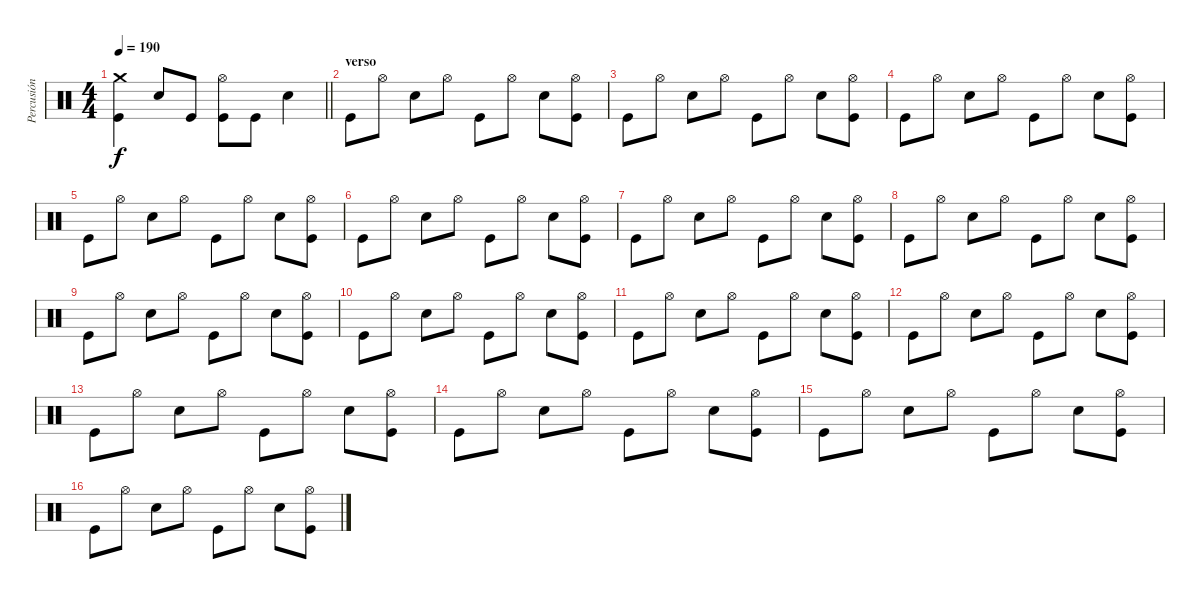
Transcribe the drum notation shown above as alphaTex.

\track ("Percusión" "Percusión") {instrument percussion}
\staff {score}
\articulation defaults
\ts (4 4)
\tempo 190
\clef neutral
\barLineRight lightlight
\ks c
("Crash medium (hit)" "Kick (hit)").4{dy f} "Electric Snare (hit)".8 "Kick (hit)".8 ("Hi-Hat (open)" "Kick (hit)").8 "Kick (hit)".8 "Electric Snare (hit)".4 |
\section ("" "verso")
"Kick (hit)".8 "Hi-Hat (open)".8 "Electric Snare (hit)".8 "Hi-Hat (open)".8 "Kick (hit)".8 "Hi-Hat (open)".8 "Electric Snare (hit)".8 ("Hi-Hat (open)" "Kick (hit)").8 |
"Kick (hit)".8 "Hi-Hat (open)".8 "Electric Snare (hit)".8 "Hi-Hat (open)".8 "Kick (hit)".8 "Hi-Hat (open)".8 "Electric Snare (hit)".8 ("Hi-Hat (open)" "Kick (hit)").8 |
"Kick (hit)".8 "Hi-Hat (open)".8 "Electric Snare (hit)".8 "Hi-Hat (open)".8 "Kick (hit)".8 "Hi-Hat (open)".8 "Electric Snare (hit)".8 ("Hi-Hat (open)" "Kick (hit)").8 |
"Kick (hit)".8 "Hi-Hat (open)".8 "Electric Snare (hit)".8 "Hi-Hat (open)".8 "Kick (hit)".8 "Hi-Hat (open)".8 "Electric Snare (hit)".8 ("Hi-Hat (open)" "Kick (hit)").8 |
"Kick (hit)".8 "Hi-Hat (open)".8 "Electric Snare (hit)".8 "Hi-Hat (open)".8 "Kick (hit)".8 "Hi-Hat (open)".8 "Electric Snare (hit)".8 ("Hi-Hat (open)" "Kick (hit)").8 |
"Kick (hit)".8 "Hi-Hat (open)".8 "Electric Snare (hit)".8 "Hi-Hat (open)".8 "Kick (hit)".8 "Hi-Hat (open)".8 "Electric Snare (hit)".8 ("Hi-Hat (open)" "Kick (hit)").8 |
"Kick (hit)".8 "Hi-Hat (open)".8 "Electric Snare (hit)".8 "Hi-Hat (open)".8 "Kick (hit)".8 "Hi-Hat (open)".8 "Electric Snare (hit)".8 ("Hi-Hat (open)" "Kick (hit)").8 |
"Kick (hit)".8 "Hi-Hat (open)".8 "Electric Snare (hit)".8 "Hi-Hat (open)".8 "Kick (hit)".8 "Hi-Hat (open)".8 "Electric Snare (hit)".8 ("Hi-Hat (open)" "Kick (hit)").8 |
"Kick (hit)".8 "Hi-Hat (open)".8 "Electric Snare (hit)".8 "Hi-Hat (open)".8 "Kick (hit)".8 "Hi-Hat (open)".8 "Electric Snare (hit)".8 ("Hi-Hat (open)" "Kick (hit)").8 |
"Kick (hit)".8 "Hi-Hat (open)".8 "Electric Snare (hit)".8 "Hi-Hat (open)".8 "Kick (hit)".8 "Hi-Hat (open)".8 "Electric Snare (hit)".8 ("Hi-Hat (open)" "Kick (hit)").8 |
"Kick (hit)".8 "Hi-Hat (open)".8 "Electric Snare (hit)".8 "Hi-Hat (open)".8 "Kick (hit)".8 "Hi-Hat (open)".8 "Electric Snare (hit)".8 ("Hi-Hat (open)" "Kick (hit)").8 |
"Kick (hit)".8 "Hi-Hat (open)".8 "Electric Snare (hit)".8 "Hi-Hat (open)".8 "Kick (hit)".8 "Hi-Hat (open)".8 "Electric Snare (hit)".8 ("Hi-Hat (open)" "Kick (hit)").8 |
"Kick (hit)".8 "Hi-Hat (open)".8 "Electric Snare (hit)".8 "Hi-Hat (open)".8 "Kick (hit)".8 "Hi-Hat (open)".8 "Electric Snare (hit)".8 ("Hi-Hat (open)" "Kick (hit)").8 |
"Kick (hit)".8 "Hi-Hat (open)".8 "Electric Snare (hit)".8 "Hi-Hat (open)".8 "Kick (hit)".8 "Hi-Hat (open)".8 "Electric Snare (hit)".8 ("Hi-Hat (open)" "Kick (hit)").8 |
"Kick (hit)".8 "Hi-Hat (open)".8 "Electric Snare (hit)".8 "Hi-Hat (open)".8 "Kick (hit)".8 "Hi-Hat (open)".8 "Electric Snare (hit)".8 ("Hi-Hat (open)" "Kick (hit)").8
